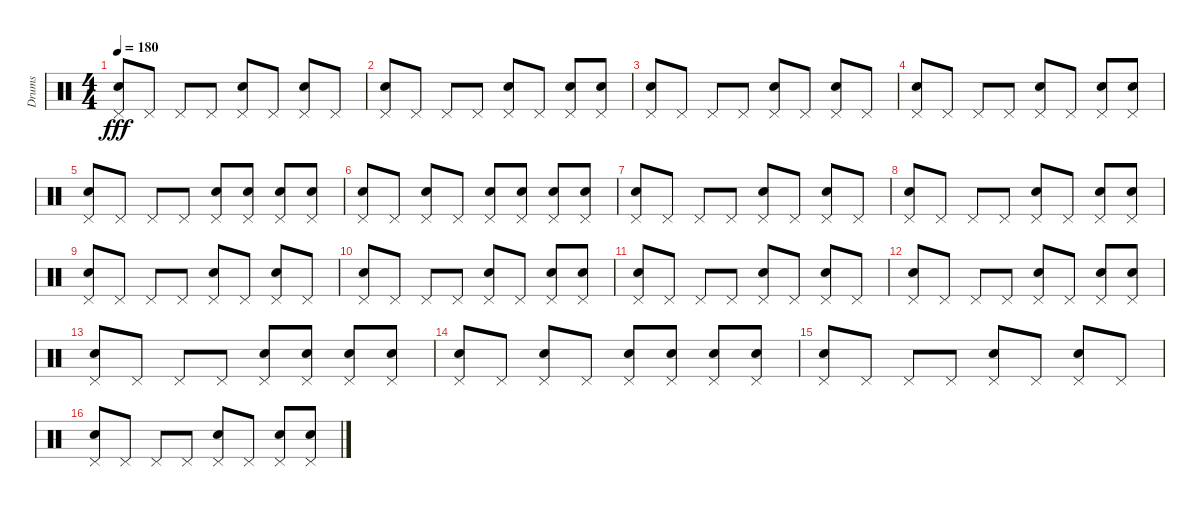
\track ("Drums" "Drums") {instrument percussion}
\staff {score}
\articulation defaults
\ts (4 4)
\tempo 180
\clef neutral
\ks c
("Electric Snare (hit)" "Pedal Hi-Hat (hit)").8{dy fff} "Pedal Hi-Hat (hit)".8 "Pedal Hi-Hat (hit)".8 "Pedal Hi-Hat (hit)".8 ("Electric Snare (hit)" "Pedal Hi-Hat (hit)").8 "Pedal Hi-Hat (hit)".8 ("Electric Snare (hit)" "Pedal Hi-Hat (hit)").8 "Pedal Hi-Hat (hit)".8 |
("Electric Snare (hit)" "Pedal Hi-Hat (hit)").8 "Pedal Hi-Hat (hit)".8 "Pedal Hi-Hat (hit)".8 "Pedal Hi-Hat (hit)".8 ("Electric Snare (hit)" "Pedal Hi-Hat (hit)").8 "Pedal Hi-Hat (hit)".8 ("Electric Snare (hit)" "Pedal Hi-Hat (hit)").8 ("Electric Snare (hit)" "Pedal Hi-Hat (hit)").8 |
("Electric Snare (hit)" "Pedal Hi-Hat (hit)").8 "Pedal Hi-Hat (hit)".8 "Pedal Hi-Hat (hit)".8 "Pedal Hi-Hat (hit)".8 ("Electric Snare (hit)" "Pedal Hi-Hat (hit)").8 "Pedal Hi-Hat (hit)".8 ("Electric Snare (hit)" "Pedal Hi-Hat (hit)").8 "Pedal Hi-Hat (hit)".8 |
("Electric Snare (hit)" "Pedal Hi-Hat (hit)").8 "Pedal Hi-Hat (hit)".8 "Pedal Hi-Hat (hit)".8 "Pedal Hi-Hat (hit)".8 ("Electric Snare (hit)" "Pedal Hi-Hat (hit)").8 "Pedal Hi-Hat (hit)".8 ("Electric Snare (hit)" "Pedal Hi-Hat (hit)").8 ("Electric Snare (hit)" "Pedal Hi-Hat (hit)").8 |
("Electric Snare (hit)" "Pedal Hi-Hat (hit)").8 "Pedal Hi-Hat (hit)".8 "Pedal Hi-Hat (hit)".8 "Pedal Hi-Hat (hit)".8 ("Electric Snare (hit)" "Pedal Hi-Hat (hit)").8 ("Electric Snare (hit)" "Pedal Hi-Hat (hit)").8 ("Electric Snare (hit)" "Pedal Hi-Hat (hit)").8 ("Electric Snare (hit)" "Pedal Hi-Hat (hit)").8 |
("Electric Snare (hit)" "Pedal Hi-Hat (hit)").8 "Pedal Hi-Hat (hit)".8 ("Electric Snare (hit)" "Pedal Hi-Hat (hit)").8 "Pedal Hi-Hat (hit)".8 ("Electric Snare (hit)" "Pedal Hi-Hat (hit)").8 ("Electric Snare (hit)" "Pedal Hi-Hat (hit)").8 ("Electric Snare (hit)" "Pedal Hi-Hat (hit)").8 ("Electric Snare (hit)" "Pedal Hi-Hat (hit)").8 |
("Electric Snare (hit)" "Pedal Hi-Hat (hit)").8 "Pedal Hi-Hat (hit)".8 "Pedal Hi-Hat (hit)".8 "Pedal Hi-Hat (hit)".8 ("Electric Snare (hit)" "Pedal Hi-Hat (hit)").8 "Pedal Hi-Hat (hit)".8 ("Electric Snare (hit)" "Pedal Hi-Hat (hit)").8 "Pedal Hi-Hat (hit)".8 |
("Electric Snare (hit)" "Pedal Hi-Hat (hit)").8 "Pedal Hi-Hat (hit)".8 "Pedal Hi-Hat (hit)".8 "Pedal Hi-Hat (hit)".8 ("Electric Snare (hit)" "Pedal Hi-Hat (hit)").8 "Pedal Hi-Hat (hit)".8 ("Electric Snare (hit)" "Pedal Hi-Hat (hit)").8 ("Electric Snare (hit)" "Pedal Hi-Hat (hit)").8 |
("Electric Snare (hit)" "Pedal Hi-Hat (hit)").8 "Pedal Hi-Hat (hit)".8 "Pedal Hi-Hat (hit)".8 "Pedal Hi-Hat (hit)".8 ("Electric Snare (hit)" "Pedal Hi-Hat (hit)").8 "Pedal Hi-Hat (hit)".8 ("Electric Snare (hit)" "Pedal Hi-Hat (hit)").8 "Pedal Hi-Hat (hit)".8 |
("Electric Snare (hit)" "Pedal Hi-Hat (hit)").8 "Pedal Hi-Hat (hit)".8 "Pedal Hi-Hat (hit)".8 "Pedal Hi-Hat (hit)".8 ("Electric Snare (hit)" "Pedal Hi-Hat (hit)").8 "Pedal Hi-Hat (hit)".8 ("Electric Snare (hit)" "Pedal Hi-Hat (hit)").8 ("Electric Snare (hit)" "Pedal Hi-Hat (hit)").8 |
("Electric Snare (hit)" "Pedal Hi-Hat (hit)").8 "Pedal Hi-Hat (hit)".8 "Pedal Hi-Hat (hit)".8 "Pedal Hi-Hat (hit)".8 ("Electric Snare (hit)" "Pedal Hi-Hat (hit)").8 "Pedal Hi-Hat (hit)".8 ("Electric Snare (hit)" "Pedal Hi-Hat (hit)").8 "Pedal Hi-Hat (hit)".8 |
("Electric Snare (hit)" "Pedal Hi-Hat (hit)").8 "Pedal Hi-Hat (hit)".8 "Pedal Hi-Hat (hit)".8 "Pedal Hi-Hat (hit)".8 ("Electric Snare (hit)" "Pedal Hi-Hat (hit)").8 "Pedal Hi-Hat (hit)".8 ("Electric Snare (hit)" "Pedal Hi-Hat (hit)").8 ("Electric Snare (hit)" "Pedal Hi-Hat (hit)").8 |
("Electric Snare (hit)" "Pedal Hi-Hat (hit)").8 "Pedal Hi-Hat (hit)".8 "Pedal Hi-Hat (hit)".8 "Pedal Hi-Hat (hit)".8 ("Electric Snare (hit)" "Pedal Hi-Hat (hit)").8 ("Electric Snare (hit)" "Pedal Hi-Hat (hit)").8 ("Electric Snare (hit)" "Pedal Hi-Hat (hit)").8 ("Electric Snare (hit)" "Pedal Hi-Hat (hit)").8 |
("Electric Snare (hit)" "Pedal Hi-Hat (hit)").8 "Pedal Hi-Hat (hit)".8 ("Electric Snare (hit)" "Pedal Hi-Hat (hit)").8 "Pedal Hi-Hat (hit)".8 ("Electric Snare (hit)" "Pedal Hi-Hat (hit)").8 ("Electric Snare (hit)" "Pedal Hi-Hat (hit)").8 ("Electric Snare (hit)" "Pedal Hi-Hat (hit)").8 ("Electric Snare (hit)" "Pedal Hi-Hat (hit)").8 |
("Electric Snare (hit)" "Pedal Hi-Hat (hit)").8 "Pedal Hi-Hat (hit)".8 "Pedal Hi-Hat (hit)".8 "Pedal Hi-Hat (hit)".8 ("Electric Snare (hit)" "Pedal Hi-Hat (hit)").8 "Pedal Hi-Hat (hit)".8 ("Electric Snare (hit)" "Pedal Hi-Hat (hit)").8 "Pedal Hi-Hat (hit)".8 |
("Electric Snare (hit)" "Pedal Hi-Hat (hit)").8 "Pedal Hi-Hat (hit)".8 "Pedal Hi-Hat (hit)".8 "Pedal Hi-Hat (hit)".8 ("Electric Snare (hit)" "Pedal Hi-Hat (hit)").8 "Pedal Hi-Hat (hit)".8 ("Electric Snare (hit)" "Pedal Hi-Hat (hit)").8 ("Electric Snare (hit)" "Pedal Hi-Hat (hit)").8
